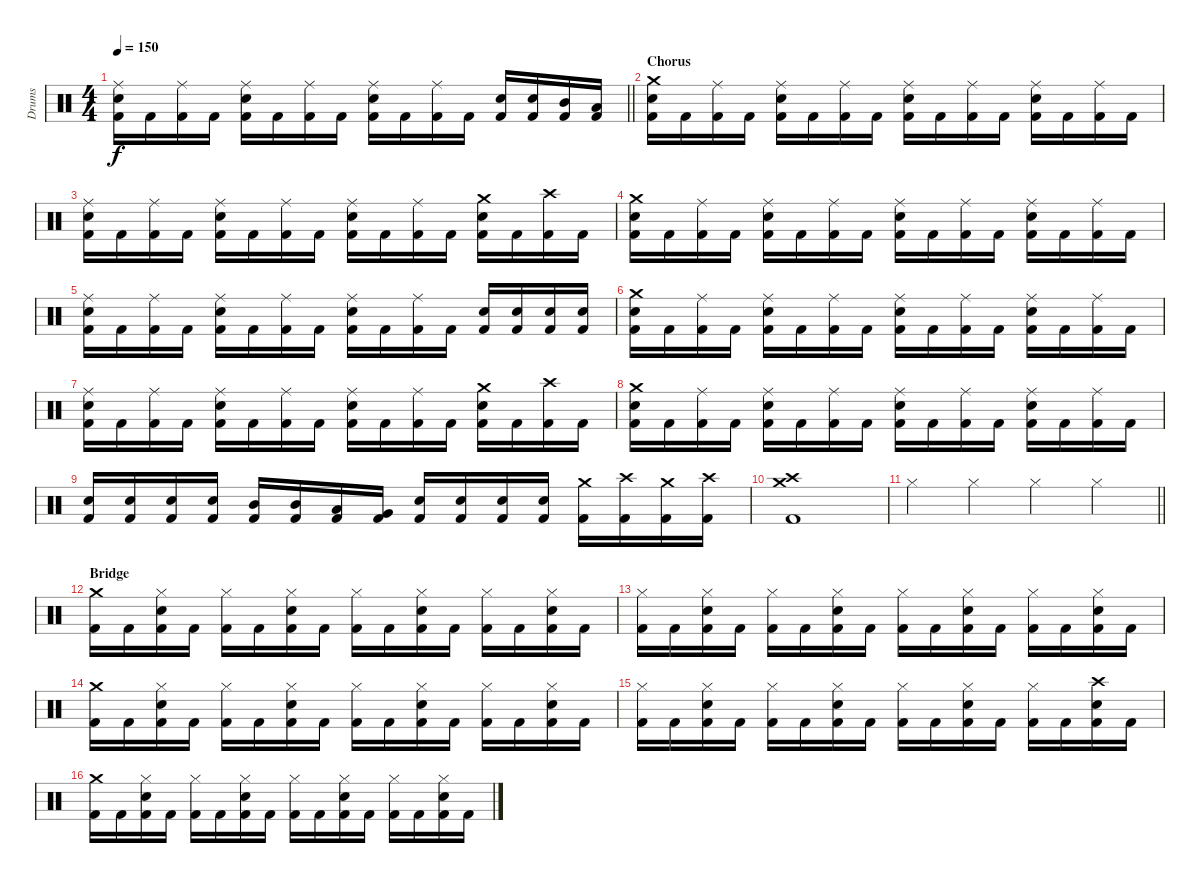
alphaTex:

\track ("Drums" "Drums") {instrument percussion}
\staff {score}
\articulation defaults
\ts (4 4)
\tempo 150
\clef neutral
\barLineRight lightlight
\ks c
("Kick (hit) 2" "Snare (hit) 2" "Ride (middle)").16{dy f} "Kick (hit) 2".16 ("Kick (hit) 2" "Ride (middle)").16 "Kick (hit) 2".16 ("Kick (hit) 2" "Snare (hit) 2" "Ride (middle)").16 "Kick (hit) 2".16 ("Kick (hit) 2" "Ride (middle)").16 "Kick (hit) 2".16 ("Kick (hit) 2" "Snare (hit) 2" "Ride (middle)").16 "Kick (hit) 2".16 ("Kick (hit) 2" "Ride (middle)").16 "Kick (hit) 2".16 ("Kick (hit) 2" "Snare (hit) 2").16 ("Kick (hit) 2" "Snare (hit) 2").16 ("Kick (hit) 2" "Mid Tom (hit)").16 ("Kick (hit) 2" "Low Tom (hit)").16 |
\section ("" "Chorus")
("Kick (hit) 2" "Snare (hit) 2" "Crash medium (hit)").16 "Kick (hit) 2".16 ("Kick (hit) 2" "Ride (middle)").16 "Kick (hit) 2".16 ("Kick (hit) 2" "Snare (hit) 2" "Ride (middle)").16 "Kick (hit) 2".16 ("Kick (hit) 2" "Ride (middle)").16 "Kick (hit) 2".16 ("Kick (hit) 2" "Snare (hit) 2" "Ride (middle)").16 "Kick (hit) 2".16 ("Kick (hit) 2" "Ride (middle)").16 "Kick (hit) 2".16 ("Kick (hit) 2" "Snare (hit) 2" "Ride (middle)").16 "Kick (hit) 2".16 ("Kick (hit) 2" "Ride (middle)").16 "Kick (hit) 2".16 |
("Kick (hit) 2" "Snare (hit) 2" "Ride (middle)").16 "Kick (hit) 2".16 ("Kick (hit) 2" "Ride (middle)").16 "Kick (hit) 2".16 ("Kick (hit) 2" "Snare (hit) 2" "Ride (middle)").16 "Kick (hit) 2".16 ("Kick (hit) 2" "Ride (middle)").16 "Kick (hit) 2".16 ("Kick (hit) 2" "Snare (hit) 2" "Ride (middle)").16 "Kick (hit) 2".16 ("Kick (hit) 2" "Ride (middle)").16 "Kick (hit) 2".16 ("Kick (hit) 2" "Snare (hit) 2" "Crash medium (hit)").16 "Kick (hit) 2".16 ("Kick (hit) 2" "Crash high (hit)").16 "Kick (hit) 2".16 |
("Kick (hit) 2" "Snare (hit) 2" "Crash medium (hit)").16 "Kick (hit) 2".16 ("Kick (hit) 2" "Ride (middle)").16 "Kick (hit) 2".16 ("Kick (hit) 2" "Snare (hit) 2" "Ride (middle)").16 "Kick (hit) 2".16 ("Kick (hit) 2" "Ride (middle)").16 "Kick (hit) 2".16 ("Kick (hit) 2" "Snare (hit) 2" "Ride (middle)").16 "Kick (hit) 2".16 ("Kick (hit) 2" "Ride (middle)").16 "Kick (hit) 2".16 ("Kick (hit) 2" "Snare (hit) 2" "Ride (middle)").16 "Kick (hit) 2".16 ("Kick (hit) 2" "Ride (middle)").16 "Kick (hit) 2".16 |
("Kick (hit) 2" "Snare (hit) 2" "Ride (middle)").16 "Kick (hit) 2".16 ("Kick (hit) 2" "Ride (middle)").16 "Kick (hit) 2".16 ("Kick (hit) 2" "Snare (hit) 2" "Ride (middle)").16 "Kick (hit) 2".16 ("Kick (hit) 2" "Ride (middle)").16 "Kick (hit) 2".16 ("Kick (hit) 2" "Snare (hit) 2" "Ride (middle)").16 "Kick (hit) 2".16 ("Kick (hit) 2" "Ride (middle)").16 "Kick (hit) 2".16 ("Kick (hit) 2" "Snare (hit) 2").16 ("Kick (hit) 2" "Snare (hit) 2").16 ("Kick (hit) 2" "Snare (hit) 2").16 ("Kick (hit) 2" "Snare (hit) 2").16 |
("Kick (hit) 2" "Snare (hit) 2" "Crash medium (hit)").16 "Kick (hit) 2".16 ("Kick (hit) 2" "Ride (middle)").16 "Kick (hit) 2".16 ("Kick (hit) 2" "Snare (hit) 2" "Ride (middle)").16 "Kick (hit) 2".16 ("Kick (hit) 2" "Ride (middle)").16 "Kick (hit) 2".16 ("Kick (hit) 2" "Snare (hit) 2" "Ride (middle)").16 "Kick (hit) 2".16 ("Kick (hit) 2" "Ride (middle)").16 "Kick (hit) 2".16 ("Kick (hit) 2" "Snare (hit) 2" "Ride (middle)").16 "Kick (hit) 2".16 ("Kick (hit) 2" "Ride (middle)").16 "Kick (hit) 2".16 |
("Kick (hit) 2" "Snare (hit) 2" "Ride (middle)").16 "Kick (hit) 2".16 ("Kick (hit) 2" "Ride (middle)").16 "Kick (hit) 2".16 ("Kick (hit) 2" "Snare (hit) 2" "Ride (middle)").16 "Kick (hit) 2".16 ("Kick (hit) 2" "Ride (middle)").16 "Kick (hit) 2".16 ("Kick (hit) 2" "Snare (hit) 2" "Ride (middle)").16 "Kick (hit) 2".16 ("Kick (hit) 2" "Ride (middle)").16 "Kick (hit) 2".16 ("Kick (hit) 2" "Snare (hit) 2" "Crash medium (hit)").16 "Kick (hit) 2".16 ("Kick (hit) 2" "Crash high (hit)").16 "Kick (hit) 2".16 |
("Kick (hit) 2" "Snare (hit) 2" "Crash medium (hit)").16 "Kick (hit) 2".16 ("Kick (hit) 2" "Ride (middle)").16 "Kick (hit) 2".16 ("Kick (hit) 2" "Snare (hit) 2" "Ride (middle)").16 "Kick (hit) 2".16 ("Kick (hit) 2" "Ride (middle)").16 "Kick (hit) 2".16 ("Kick (hit) 2" "Snare (hit) 2" "Ride (middle)").16 "Kick (hit) 2".16 ("Kick (hit) 2" "Ride (middle)").16 "Kick (hit) 2".16 ("Kick (hit) 2" "Snare (hit) 2" "Ride (middle)").16 "Kick (hit) 2".16 ("Kick (hit) 2" "Ride (middle)").16 "Kick (hit) 2".16 |
("Kick (hit) 2" "Snare (hit) 2").16 ("Kick (hit) 2" "Snare (hit) 2").16 ("Kick (hit) 2" "Snare (hit) 2").16 ("Kick (hit) 2" "Snare (hit) 2").16 ("Kick (hit) 2" "Mid Tom (hit)").16 ("Kick (hit) 2" "Mid Tom (hit)").16 ("Kick (hit) 2" "Low Tom (hit)").16 ("Kick (hit) 2" "Very Low Tom (hit)").16 ("Kick (hit) 2" "Snare (hit) 2").16 ("Kick (hit) 2" "Snare (hit) 2").16 ("Kick (hit) 2" "Snare (hit) 2").16 ("Kick (hit) 2" "Snare (hit) 2").16 ("Kick (hit) 2" "Crash medium (hit)").16 ("Kick (hit) 2" "Crash high (hit)").16 ("Kick (hit) 2" "Crash medium (hit)").16 ("Kick (hit) 2" "Crash high (hit)").16 |
("Kick (hit) 2" "Crash high (hit)" "Crash medium (hit)").1 |
\barLineRight lightlight "Hi-Hat (closed)".4 "Hi-Hat (closed)".4 "Hi-Hat (closed)".4 "Hi-Hat (closed)".4
|
\section ("" "Bridge")
("Kick (hit) 2" "Crash medium (hit)").16 "Kick (hit) 2".16 ("Kick (hit) 2" "Snare (hit) 2" "Hi-Hat (closed)").16 "Kick (hit) 2".16 ("Kick (hit) 2" "Hi-Hat (closed)").16 "Kick (hit) 2".16 ("Kick (hit) 2" "Snare (hit) 2" "Hi-Hat (closed)").16 "Kick (hit) 2".16 ("Kick (hit) 2" "Hi-Hat (closed)").16 "Kick (hit) 2".16 ("Kick (hit) 2" "Snare (hit) 2" "Hi-Hat (closed)").16 "Kick (hit) 2".16 ("Kick (hit) 2" "Hi-Hat (closed)").16 "Kick (hit) 2".16 ("Kick (hit) 2" "Snare (hit) 2" "Hi-Hat (closed)").16 "Kick (hit) 2".16 |
("Kick (hit) 2" "Hi-Hat (closed)").16 "Kick (hit) 2".16 ("Kick (hit) 2" "Snare (hit) 2" "Hi-Hat (closed)").16 "Kick (hit) 2".16 ("Kick (hit) 2" "Hi-Hat (closed)").16 "Kick (hit) 2".16 ("Kick (hit) 2" "Snare (hit) 2" "Hi-Hat (closed)").16 "Kick (hit) 2".16 ("Kick (hit) 2" "Hi-Hat (closed)").16 "Kick (hit) 2".16 ("Kick (hit) 2" "Snare (hit) 2" "Hi-Hat (closed)").16 "Kick (hit) 2".16 ("Kick (hit) 2" "Hi-Hat (closed)").16 "Kick (hit) 2".16 ("Kick (hit) 2" "Snare (hit) 2" "Hi-Hat (closed)").16 "Kick (hit) 2".16 |
("Kick (hit) 2" "Crash medium (hit)").16 "Kick (hit) 2".16 ("Kick (hit) 2" "Snare (hit) 2" "Hi-Hat (closed)").16 "Kick (hit) 2".16 ("Kick (hit) 2" "Hi-Hat (closed)").16 "Kick (hit) 2".16 ("Kick (hit) 2" "Snare (hit) 2" "Hi-Hat (closed)").16 "Kick (hit) 2".16 ("Kick (hit) 2" "Hi-Hat (closed)").16 "Kick (hit) 2".16 ("Kick (hit) 2" "Snare (hit) 2" "Hi-Hat (closed)").16 "Kick (hit) 2".16 ("Kick (hit) 2" "Hi-Hat (closed)").16 "Kick (hit) 2".16 ("Kick (hit) 2" "Snare (hit) 2" "Hi-Hat (closed)").16 "Kick (hit) 2".16 |
("Kick (hit) 2" "Hi-Hat (closed)").16 "Kick (hit) 2".16 ("Kick (hit) 2" "Snare (hit) 2" "Hi-Hat (closed)").16 "Kick (hit) 2".16 ("Kick (hit) 2" "Hi-Hat (closed)").16 "Kick (hit) 2".16 ("Kick (hit) 2" "Snare (hit) 2" "Hi-Hat (closed)").16 "Kick (hit) 2".16 ("Kick (hit) 2" "Hi-Hat (closed)").16 "Kick (hit) 2".16 ("Kick (hit) 2" "Snare (hit) 2" "Hi-Hat (closed)").16 "Kick (hit) 2".16 ("Kick (hit) 2" "Hi-Hat (closed)").16 "Kick (hit) 2".16 ("Kick (hit) 2" "Snare (hit) 2" "Crash high (hit)").16 "Kick (hit) 2".16 |
("Kick (hit) 2" "Crash medium (hit)").16 "Kick (hit) 2".16 ("Kick (hit) 2" "Snare (hit) 2" "Hi-Hat (closed)").16 "Kick (hit) 2".16 ("Kick (hit) 2" "Hi-Hat (closed)").16 "Kick (hit) 2".16 ("Kick (hit) 2" "Snare (hit) 2" "Hi-Hat (closed)").16 "Kick (hit) 2".16 ("Kick (hit) 2" "Hi-Hat (closed)").16 "Kick (hit) 2".16 ("Kick (hit) 2" "Snare (hit) 2" "Hi-Hat (closed)").16 "Kick (hit) 2".16 ("Kick (hit) 2" "Hi-Hat (closed)").16 "Kick (hit) 2".16 ("Kick (hit) 2" "Snare (hit) 2" "Hi-Hat (closed)").16 "Kick (hit) 2".16
